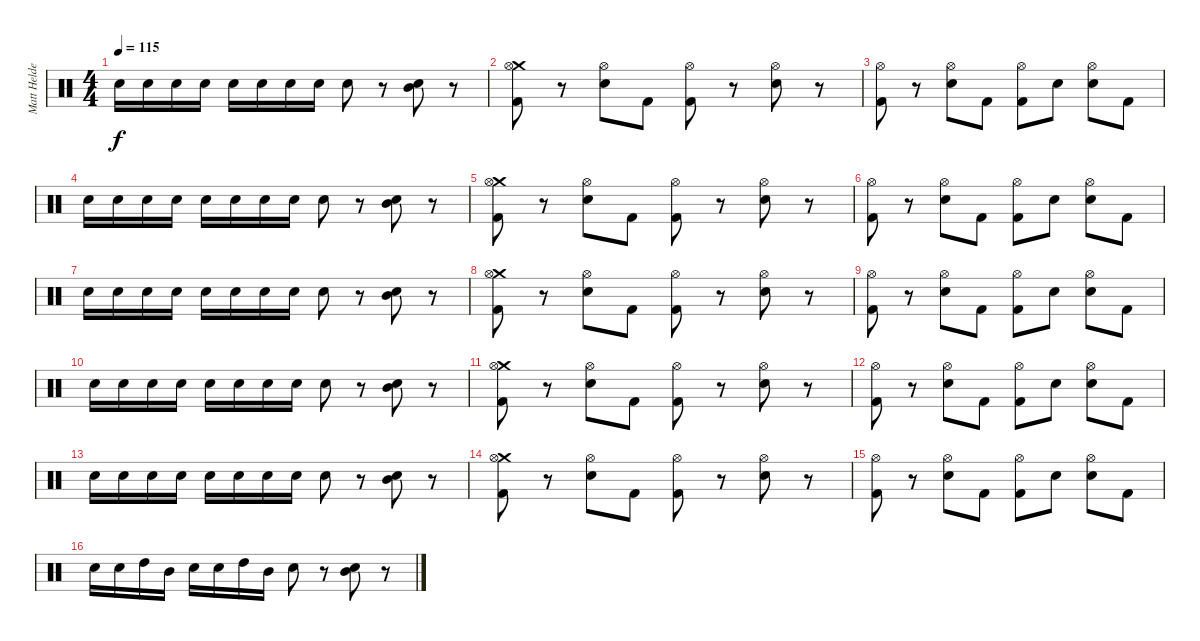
\track ("Matt Helders (Percussion)" "Matt Helde") {instrument percussion}
\staff {score}
\articulation defaults
\ts (4 4)
\tempo 115
\clef neutral
\ks c "Snare (hit) 2".16{dy f} "Snare (hit) 2".16 "Snare (hit) 2".16 "Snare (hit) 2".16 "Snare (hit) 2".16 "Snare (hit) 2".16 "Snare (hit) 2".16 "Snare (hit) 2".16 "Snare (hit) 2".8
r.8 ("Snare (hit) 2" "Mid Tom (hit)").8 r.8 |
("Crash medium (hit)" "Hi-Hat (open)" "Kick (hit) 2").8 r.8 ("Hi-Hat (open)" "Snare (hit) 2").8 "Kick (hit) 2".8 ("Hi-Hat (open)" "Kick (hit) 2").8 r.8 ("Hi-Hat (open)" "Snare (hit) 2").8 r.8 |
("Hi-Hat (open)" "Kick (hit) 2").8 r.8 ("Hi-Hat (open)" "Snare (hit) 2").8 "Kick (hit) 2".8 ("Hi-Hat (open)" "Kick (hit) 2").8 "Snare (hit) 2".8 ("Hi-Hat (open)" "Snare (hit) 2").8 "Kick (hit) 2".8 |
"Snare (hit) 2".16 "Snare (hit) 2".16 "Snare (hit) 2".16 "Snare (hit) 2".16 "Snare (hit) 2".16 "Snare (hit) 2".16 "Snare (hit) 2".16 "Snare (hit) 2".16 "Snare (hit) 2".8 r.8 ("Snare (hit) 2" "Mid Tom (hit)").8 r.8 |
("Crash medium (hit)" "Hi-Hat (open)" "Kick (hit) 2").8 r.8 ("Hi-Hat (open)" "Snare (hit) 2").8 "Kick (hit) 2".8 ("Hi-Hat (open)" "Kick (hit) 2").8 r.8 ("Hi-Hat (open)" "Snare (hit) 2").8 r.8 |
("Hi-Hat (open)" "Kick (hit) 2").8 r.8 ("Hi-Hat (open)" "Snare (hit) 2").8 "Kick (hit) 2".8 ("Hi-Hat (open)" "Kick (hit) 2").8 "Snare (hit) 2".8 ("Hi-Hat (open)" "Snare (hit) 2").8 "Kick (hit) 2".8 |
"Snare (hit) 2".16 "Snare (hit) 2".16 "Snare (hit) 2".16 "Snare (hit) 2".16 "Snare (hit) 2".16 "Snare (hit) 2".16 "Snare (hit) 2".16 "Snare (hit) 2".16 "Snare (hit) 2".8 r.8 ("Snare (hit) 2" "Mid Tom (hit)").8 r.8 |
("Crash medium (hit)" "Hi-Hat (open)" "Kick (hit) 2").8 r.8 ("Hi-Hat (open)" "Snare (hit) 2").8 "Kick (hit) 2".8 ("Hi-Hat (open)" "Kick (hit) 2").8 r.8 ("Hi-Hat (open)" "Snare (hit) 2").8 r.8 |
("Hi-Hat (open)" "Kick (hit) 2").8 r.8 ("Hi-Hat (open)" "Snare (hit) 2").8 "Kick (hit) 2".8 ("Hi-Hat (open)" "Kick (hit) 2").8 "Snare (hit) 2".8 ("Hi-Hat (open)" "Snare (hit) 2").8 "Kick (hit) 2".8 |
"Snare (hit) 2".16 "Snare (hit) 2".16 "Snare (hit) 2".16 "Snare (hit) 2".16 "Snare (hit) 2".16 "Snare (hit) 2".16 "Snare (hit) 2".16 "Snare (hit) 2".16 "Snare (hit) 2".8 r.8 ("Snare (hit) 2" "Mid Tom (hit)").8 r.8 |
("Crash medium (hit)" "Hi-Hat (open)" "Kick (hit) 2").8 r.8 ("Hi-Hat (open)" "Snare (hit) 2").8 "Kick (hit) 2".8 ("Hi-Hat (open)" "Kick (hit) 2").8 r.8 ("Hi-Hat (open)" "Snare (hit) 2").8 r.8 |
("Hi-Hat (open)" "Kick (hit) 2").8 r.8 ("Hi-Hat (open)" "Snare (hit) 2").8 "Kick (hit) 2".8 ("Hi-Hat (open)" "Kick (hit) 2").8 "Snare (hit) 2".8 ("Hi-Hat (open)" "Snare (hit) 2").8 "Kick (hit) 2".8 |
"Snare (hit) 2".16 "Snare (hit) 2".16 "Snare (hit) 2".16 "Snare (hit) 2".16 "Snare (hit) 2".16 "Snare (hit) 2".16 "Snare (hit) 2".16 "Snare (hit) 2".16 "Snare (hit) 2".8 r.8 ("Snare (hit) 2" "Mid Tom (hit)").8 r.8 |
("Crash medium (hit)" "Hi-Hat (open)" "Kick (hit) 2").8 r.8 ("Hi-Hat (open)" "Snare (hit) 2").8 "Kick (hit) 2".8 ("Hi-Hat (open)" "Kick (hit) 2").8 r.8 ("Hi-Hat (open)" "Snare (hit) 2").8 r.8 |
("Hi-Hat (open)" "Kick (hit) 2").8 r.8 ("Hi-Hat (open)" "Snare (hit) 2").8 "Kick (hit) 2".8 ("Hi-Hat (open)" "Kick (hit) 2").8 "Snare (hit) 2".8 ("Hi-Hat (open)" "Snare (hit) 2").8 "Kick (hit) 2".8 |
"Snare (hit) 2".16 "Snare (hit) 2".16 "High Tom (hit)".16 "Mid Tom (hit)".16 "Snare (hit) 2".16 "Snare (hit) 2".16 "High Tom (hit)".16 "Mid Tom (hit)".16 "Snare (hit) 2".8 r.8 ("Snare (hit) 2" "Mid Tom (hit)").8 r.8
